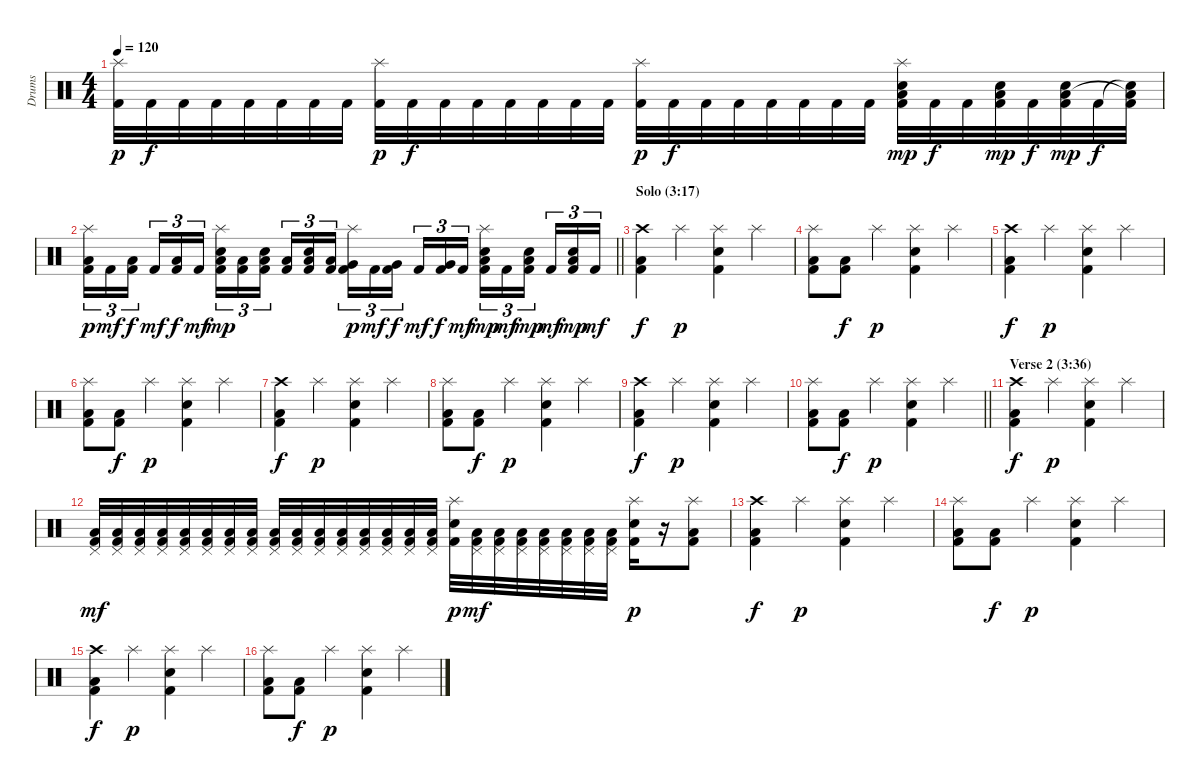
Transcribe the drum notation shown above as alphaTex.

\track ("Drums" "Drums") {instrument percussion}
\staff {score}
\articulation defaults
\ts (4 4)
\tempo 120
\clef neutral
\ks c
("Splash (hit)" "Kick (hit) 2").32{dy p volume 12} "Kick (hit) 2".32{dy f} "Kick (hit) 2".32 "Kick (hit) 2".32 "Kick (hit) 2".32 "Kick (hit) 2".32 "Kick (hit) 2".32 "Kick (hit) 2".32 ("Splash (hit)" "Kick (hit) 2").32{dy p} "Kick (hit) 2".32{dy f} "Kick (hit) 2".32 "Kick (hit) 2".32 "Kick (hit) 2".32 "Kick (hit) 2".32 "Kick (hit) 2".32 "Kick (hit) 2".32 ("Splash (hit)" "Kick (hit) 2").32{dy p} "Kick (hit) 2".32{dy f} "Kick (hit) 2".32 "Kick (hit) 2".32 "Kick (hit) 2".32 "Kick (hit) 2".32 "Kick (hit) 2".32 "Kick (hit) 2".32 ("Splash (hit)" "Snare (hit) 2" "Low Floor Tom (hit)" "Kick (hit) 2").32{dy mp} "Kick (hit) 2".32{dy f} "Kick (hit) 2".32 ("Snare (hit) 2" "Low Floor Tom (hit)" "Kick (hit) 2").32{dy mp} "Kick (hit) 2".32{dy f} ("Snare (hit) 2" "Low Floor Tom (hit)" "Kick (hit) 2").32{dy mp} "Kick (hit) 2".32{dy f} ("Snare (hit)"{t} "Low Floor Tom (hit)"{t} "Kick (hit) 2").32 |
\barLineRight lightlight
("Splash (hit)" "Low Tom (hit)" "Kick (hit) 2").16{tu (3 2) dy p} "Kick (hit) 2".16{tu (3 2) dy mf} ("Low Tom (hit)" "Kick (hit) 2").16{tu (3 2) dy f beam splitsecondary} "Kick (hit) 2".16{tu (3 2) dy mf} ("Low Tom (hit)" "Kick (hit) 2").16{tu (3 2) dy f} "Kick (hit) 2".16{tu (3 2) dy mf} ("Splash (hit)" "Snare (hit) 2" "Low Floor Tom (hit)" "Kick (hit) 2").16{tu (3 2) dy mp} ("Low Floor Tom (hit)" "Kick (hit) 2").16{tu (3 2)} ("Snare (hit) 2" "Low Floor Tom (hit)" "Kick (hit) 2").16{tu (3 2) beam splitsecondary} ("Low Floor Tom (hit)" "Kick (hit) 2").16{tu (3 2)} ("Snare (hit) 2" "Low Floor Tom (hit)" "Kick (hit) 2").16{tu (3 2)} ("Low Floor Tom (hit)" "Kick (hit) 2").16{tu (3 2)} ("Splash (hit)" "Very Low Tom (hit)" "Kick (hit) 2").16{tu (3 2) dy p} "Kick (hit) 2".16{tu (3 2) dy mf} ("Very Low Tom (hit)" "Kick (hit) 2").16{tu (3 2) dy f beam splitsecondary} "Kick (hit) 2".16{tu (3 2) dy mf} ("Very Low Tom (hit)" "Kick (hit) 2").16{tu (3 2) dy f} "Kick (hit) 2".16{tu (3 2) dy mf} ("Splash (hit)" "Snare (hit) 2" "Low Floor Tom (hit)" "Kick (hit) 2").16{tu (3 2) dy mp} "Kick (hit) 2".16{tu (3 2) dy mf} ("Snare (hit) 2" "Low Floor Tom (hit)" "Kick (hit) 2").16{tu (3 2) dy mp beam splitsecondary} "Kick (hit) 2".16{tu (3 2) dy mf} ("Snare (hit) 2" "Low Floor Tom (hit)" "Kick (hit) 2").16{tu (3 2) dy mp} "Kick (hit) 2".16{tu (3 2) dy mf} |
\section ("" "Solo (3:17)")
("Crash high (hit)" "Low Floor Tom (hit)" "Kick (hit) 2").4{dy f} "Splash (hit)".4{dy p} ("Splash (hit)" "Snare (hit) 2" "Kick (hit) 2").4 "Splash (hit)".4 |
("Splash (hit)" "Low Floor Tom (hit)" "Kick (hit) 2").8 ("Low Floor Tom (hit)" "Kick (hit) 2").8{dy f} "Splash (hit)".4{dy p} ("Splash (hit)" "Snare (hit) 2" "Kick (hit) 2").4 "Splash (hit)".4 |
("Crash high (hit)" "Low Floor Tom (hit)" "Kick (hit) 2").4{dy f} "Splash (hit)".4{dy p} ("Splash (hit)" "Snare (hit) 2" "Kick (hit) 2").4 "Splash (hit)".4 |
("Splash (hit)" "Low Floor Tom (hit)" "Kick (hit) 2").8 ("Low Floor Tom (hit)" "Kick (hit) 2").8{dy f} "Splash (hit)".4{dy p} ("Splash (hit)" "Snare (hit) 2" "Kick (hit) 2").4 "Splash (hit)".4 |
("Crash high (hit)" "Low Floor Tom (hit)" "Kick (hit) 2").4{dy f} "Splash (hit)".4{dy p} ("Splash (hit)" "Snare (hit) 2" "Kick (hit) 2").4 "Splash (hit)".4 |
("Splash (hit)" "Low Floor Tom (hit)" "Kick (hit) 2").8 ("Low Floor Tom (hit)" "Kick (hit) 2").8{dy f} "Splash (hit)".4{dy p} ("Splash (hit)" "Snare (hit) 2" "Kick (hit) 2").4 "Splash (hit)".4 |
("Crash high (hit)" "Low Floor Tom (hit)" "Kick (hit) 2").4{dy f} "Splash (hit)".4{dy p} ("Splash (hit)" "Snare (hit) 2" "Kick (hit) 2").4 "Splash (hit)".4 |
\barLineRight lightlight
("Splash (hit)" "Low Floor Tom (hit)" "Kick (hit) 2").8 ("Low Floor Tom (hit)" "Kick (hit) 2").8{dy f} "Splash (hit)".4{dy p} ("Splash (hit)" "Snare (hit) 2" "Kick (hit) 2").4 "Splash (hit)".4 |
\section ("" "Verse 2 (3:36)")
("Crash high (hit)" "Low Floor Tom (hit)" "Kick (hit) 2").4{dy f} "Splash (hit)".4{dy p} ("Splash (hit)" "Snare (hit) 2" "Kick (hit) 2").4 "Splash (hit)".4 |
("Pedal Hi-Hat (hit)" "Low Floor Tom (hit)" "Kick (hit) 2").32{dy mf} ("Pedal Hi-Hat (hit)" "Low Floor Tom (hit)" "Kick (hit) 2").32 ("Pedal Hi-Hat (hit)" "Low Floor Tom (hit)" "Kick (hit) 2").32 ("Pedal Hi-Hat (hit)" "Low Floor Tom (hit)" "Kick (hit) 2").32 ("Pedal Hi-Hat (hit)" "Low Floor Tom (hit)" "Kick (hit) 2").32 ("Pedal Hi-Hat (hit)" "Low Floor Tom (hit)" "Kick (hit) 2").32 ("Pedal Hi-Hat (hit)" "Low Floor Tom (hit)" "Kick (hit) 2").32 ("Pedal Hi-Hat (hit)" "Low Floor Tom (hit)" "Kick (hit) 2").32 ("Pedal Hi-Hat (hit)" "Low Floor Tom (hit)" "Kick (hit) 2").32 ("Pedal Hi-Hat (hit)" "Low Floor Tom (hit)" "Kick (hit) 2").32 ("Pedal Hi-Hat (hit)" "Low Floor Tom (hit)" "Kick (hit) 2").32 ("Pedal Hi-Hat (hit)" "Low Floor Tom (hit)" "Kick (hit) 2").32 ("Pedal Hi-Hat (hit)" "Low Floor Tom (hit)" "Kick (hit) 2").32 ("Pedal Hi-Hat (hit)" "Low Floor Tom (hit)" "Kick (hit) 2").32 ("Pedal Hi-Hat (hit)" "Low Floor Tom (hit)" "Kick (hit) 2").32 ("Pedal Hi-Hat (hit)" "Low Floor Tom (hit)" "Kick (hit) 2").32 ("Splash (hit)" "Snare (hit) 2" "Kick (hit) 2").32{dy p} ("Pedal Hi-Hat (hit)" "Low Floor Tom (hit)" "Kick (hit) 2").32{dy mf} ("Pedal Hi-Hat (hit)" "Low Floor Tom (hit)" "Kick (hit) 2").32 ("Pedal Hi-Hat (hit)" "Low Floor Tom (hit)" "Kick (hit) 2").32 ("Pedal Hi-Hat (hit)" "Low Floor Tom (hit)" "Kick (hit) 2").32 ("Pedal Hi-Hat (hit)" "Low Floor Tom (hit)" "Kick (hit) 2").32 ("Pedal Hi-Hat (hit)" "Low Floor Tom (hit)" "Kick (hit) 2").32 ("Pedal Hi-Hat (hit)" "Low Floor Tom (hit)" "Kick (hit) 2").32 ("Splash (hit)" "Snare (hit) 2" "Kick (hit) 2").16{dy p} r.16 ("Splash (hit)" "Low Floor Tom (hit)" "Kick (hit) 2").8 |
("Crash high (hit)" "Low Floor Tom (hit)" "Kick (hit) 2").4{dy f} "Splash (hit)".4{dy p} ("Splash (hit)" "Snare (hit) 2" "Kick (hit) 2").4 "Splash (hit)".4 |
("Splash (hit)" "Low Floor Tom (hit)" "Kick (hit) 2").8 ("Low Floor Tom (hit)" "Kick (hit) 2").8{dy f} "Splash (hit)".4{dy p} ("Splash (hit)" "Snare (hit) 2" "Kick (hit) 2").4 "Splash (hit)".4 |
("Crash high (hit)" "Low Floor Tom (hit)" "Kick (hit) 2").4{dy f} "Splash (hit)".4{dy p} ("Splash (hit)" "Snare (hit) 2" "Kick (hit) 2").4 "Splash (hit)".4 |
("Splash (hit)" "Low Floor Tom (hit)" "Kick (hit) 2").8 ("Low Floor Tom (hit)" "Kick (hit) 2").8{dy f} "Splash (hit)".4{dy p} ("Splash (hit)" "Snare (hit) 2" "Kick (hit) 2").4 "Splash (hit)".4
